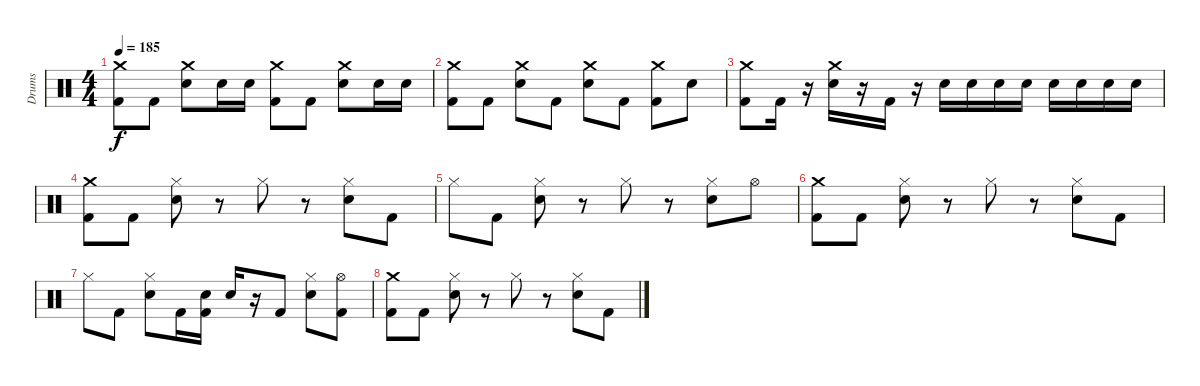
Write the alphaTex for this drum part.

\track ("Drums" "Drums") {instrument percussion}
\staff {score}
\articulation defaults
\ts (4 4)
\tempo 185
\clef neutral
\ks c
("Crash medium (hit)" "Kick (hit) 2").8{dy f} "Kick (hit) 2".8 ("Crash medium (hit)" "Electric Snare (hit)").8 "Electric Snare (hit)".16 "Electric Snare (hit)".16 ("Crash medium (hit)" "Kick (hit) 2").8 "Kick (hit) 2".8 ("Crash medium (hit)" "Electric Snare (hit)").8 "Electric Snare (hit)".16 "Electric Snare (hit)".16 |
("Crash medium (hit)" "Kick (hit) 2").8 "Kick (hit) 2".8 ("Crash medium (hit)" "Electric Snare (hit)").8 "Kick (hit) 2".8 ("Crash medium (hit)" "Electric Snare (hit)").8 "Kick (hit) 2".8 ("Crash medium (hit)" "Kick (hit) 2").8 "Electric Snare (hit)".8 |
("Crash medium (hit)" "Kick (hit) 2").8 "Kick (hit) 2".16 r.16 ("Crash medium (hit)" "Electric Snare (hit)").16 r.16 "Kick (hit) 2".16 r.16 "Electric Snare (hit)".16 "Electric Snare (hit)".16 "Electric Snare (hit)".16 "Electric Snare (hit)".16 "Electric Snare (hit)".16 "Electric Snare (hit)".16 "Electric Snare (hit)".16 "Electric Snare (hit)".16 |
("Crash medium (hit)" "Kick (hit) 2").8 "Kick (hit) 2".8 ("Hi-Hat (closed)" "Electric Snare (hit)").8 r.8 "Hi-Hat (closed)".8 r.8 ("Hi-Hat (closed)" "Electric Snare (hit)").8 "Kick (hit) 2".8 |
"Hi-Hat (closed)".8 "Kick (hit) 2".8 ("Hi-Hat (closed)" "Electric Snare (hit)").8 r.8 "Hi-Hat (closed)".8 r.8 ("Hi-Hat (closed)" "Electric Snare (hit)").8 "Hi-Hat (open)".8 |
("Crash medium (hit)" "Kick (hit) 2").8 "Kick (hit) 2".8 ("Hi-Hat (closed)" "Electric Snare (hit)").8 r.8 "Hi-Hat (closed)".8 r.8 ("Hi-Hat (closed)" "Electric Snare (hit)").8 "Kick (hit) 2".8 |
"Hi-Hat (closed)".8 "Kick (hit) 2".8 ("Hi-Hat (closed)" "Electric Snare (hit)").8 "Kick (hit) 2".16 ("Electric Snare (hit)" "Kick (hit) 2").16 "Electric Snare (hit)".16 r.16 "Kick (hit) 2".8 ("Hi-Hat (closed)" "Electric Snare (hit)").8 ("Hi-Hat (open)" "Kick (hit) 2").8 |
("Crash medium (hit)" "Kick (hit) 2").8 "Kick (hit) 2".8 ("Hi-Hat (closed)" "Electric Snare (hit)").8 r.8 "Hi-Hat (closed)".8 r.8 ("Hi-Hat (closed)" "Electric Snare (hit)").8 "Kick (hit) 2".8
